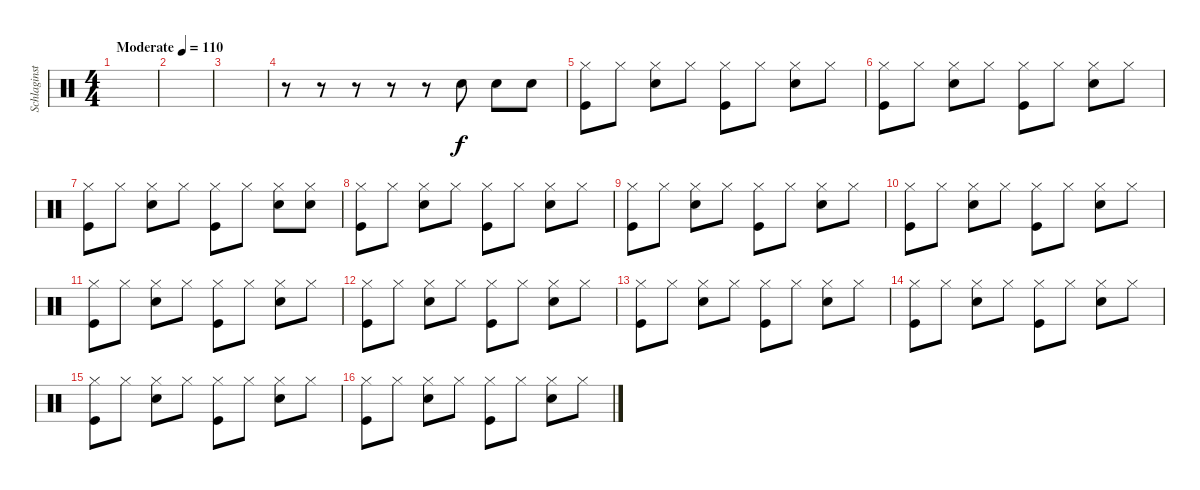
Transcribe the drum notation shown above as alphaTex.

\track ("Schlaginstrument" "Schlaginst") {instrument percussion}
\staff {score}
\articulation defaults
\ts (4 4)
\tempo (110 "Moderate")
\clef neutral
\ks c
|
|
|
r.8 r.8 r.8 r.8 r.8 "Snare (hit) 2".8 "Snare (hit) 2".8 "Snare (hit) 2".8 |
("Hi-Hat (closed)" "Kick (hit)").8 "Hi-Hat (closed)".8 ("Hi-Hat (closed)" "Snare (hit) 2").8 "Hi-Hat (closed)".8 ("Hi-Hat (closed)" "Kick (hit)").8 "Hi-Hat (closed)".8 ("Hi-Hat (closed)" "Snare (hit) 2").8 "Hi-Hat (closed)".8 |
("Hi-Hat (closed)" "Kick (hit)").8 "Hi-Hat (closed)".8 ("Hi-Hat (closed)" "Snare (hit) 2").8 "Hi-Hat (closed)".8 ("Hi-Hat (closed)" "Kick (hit)").8 "Hi-Hat (closed)".8 ("Hi-Hat (closed)" "Snare (hit) 2").8 "Hi-Hat (closed)".8 |
("Hi-Hat (closed)" "Kick (hit)").8 "Hi-Hat (closed)".8 ("Hi-Hat (closed)" "Snare (hit) 2").8 "Hi-Hat (closed)".8 ("Hi-Hat (closed)" "Kick (hit)").8 "Hi-Hat (closed)".8 ("Hi-Hat (closed)" "Snare (hit) 2").8 ("Hi-Hat (closed)" "Snare (hit) 2").8 |
("Hi-Hat (closed)" "Kick (hit)").8 "Hi-Hat (closed)".8 ("Hi-Hat (closed)" "Snare (hit) 2").8 "Hi-Hat (closed)".8 ("Hi-Hat (closed)" "Kick (hit)").8 "Hi-Hat (closed)".8 ("Hi-Hat (closed)" "Snare (hit) 2").8 "Hi-Hat (closed)".8 |
("Hi-Hat (closed)" "Kick (hit)").8 "Hi-Hat (closed)".8 ("Hi-Hat (closed)" "Snare (hit) 2").8 "Hi-Hat (closed)".8 ("Hi-Hat (closed)" "Kick (hit)").8 "Hi-Hat (closed)".8 ("Hi-Hat (closed)" "Snare (hit) 2").8 "Hi-Hat (closed)".8 |
("Hi-Hat (closed)" "Kick (hit)").8 "Hi-Hat (closed)".8 ("Hi-Hat (closed)" "Snare (hit) 2").8 "Hi-Hat (closed)".8 ("Hi-Hat (closed)" "Kick (hit)").8 "Hi-Hat (closed)".8 ("Hi-Hat (closed)" "Snare (hit) 2").8 "Hi-Hat (closed)".8 |
("Hi-Hat (closed)" "Kick (hit)").8 "Hi-Hat (closed)".8 ("Hi-Hat (closed)" "Snare (hit) 2").8 "Hi-Hat (closed)".8 ("Hi-Hat (closed)" "Kick (hit)").8 "Hi-Hat (closed)".8 ("Hi-Hat (closed)" "Snare (hit) 2").8 "Hi-Hat (closed)".8 |
("Hi-Hat (closed)" "Kick (hit)").8 "Hi-Hat (closed)".8 ("Hi-Hat (closed)" "Snare (hit) 2").8 "Hi-Hat (closed)".8 ("Hi-Hat (closed)" "Kick (hit)").8 "Hi-Hat (closed)".8 ("Hi-Hat (closed)" "Snare (hit) 2").8 "Hi-Hat (closed)".8 |
("Hi-Hat (closed)" "Kick (hit)").8 "Hi-Hat (closed)".8 ("Hi-Hat (closed)" "Snare (hit) 2").8 "Hi-Hat (closed)".8 ("Hi-Hat (closed)" "Kick (hit)").8 "Hi-Hat (closed)".8 ("Hi-Hat (closed)" "Snare (hit) 2").8 "Hi-Hat (closed)".8 |
("Hi-Hat (closed)" "Kick (hit)").8 "Hi-Hat (closed)".8 ("Hi-Hat (closed)" "Snare (hit) 2").8 "Hi-Hat (closed)".8 ("Hi-Hat (closed)" "Kick (hit)").8 "Hi-Hat (closed)".8 ("Hi-Hat (closed)" "Snare (hit) 2").8 "Hi-Hat (closed)".8 |
("Hi-Hat (closed)" "Kick (hit)").8 "Hi-Hat (closed)".8 ("Hi-Hat (closed)" "Snare (hit) 2").8 "Hi-Hat (closed)".8 ("Hi-Hat (closed)" "Kick (hit)").8 "Hi-Hat (closed)".8 ("Hi-Hat (closed)" "Snare (hit) 2").8 "Hi-Hat (closed)".8 |
("Hi-Hat (closed)" "Kick (hit)").8 "Hi-Hat (closed)".8 ("Hi-Hat (closed)" "Snare (hit) 2").8 "Hi-Hat (closed)".8 ("Hi-Hat (closed)" "Kick (hit)").8 "Hi-Hat (closed)".8 ("Hi-Hat (closed)" "Snare (hit) 2").8 "Hi-Hat (closed)".8
